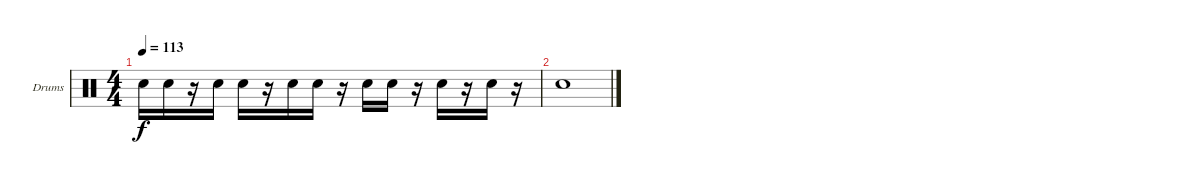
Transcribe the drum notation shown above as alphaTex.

\bracketExtendMode groupsimilarinstruments
\firstSystemTrackNameOrientation horizontal
\otherSystemsTrackNameOrientation horizontal
\track ("Drumkit" "Drums") {instrument percussion}
\staff {score}
\articulation defaults
\ts (4 4)
\tempo 113
\clef neutral
\ks c "Snare (hit) 2".16{dy f} "Snare (hit) 2".16
r.16 "Snare (hit) 2".16 "Snare (hit) 2".16 r.16 "Snare (hit) 2".16 "Snare (hit) 2".16 r.16 "Snare (hit) 2".16 "Snare (hit) 2".16 r.16 "Snare (hit) 2".16 r.16 "Snare (hit) 2".16 r.16 |
"Snare (hit) 2".1
